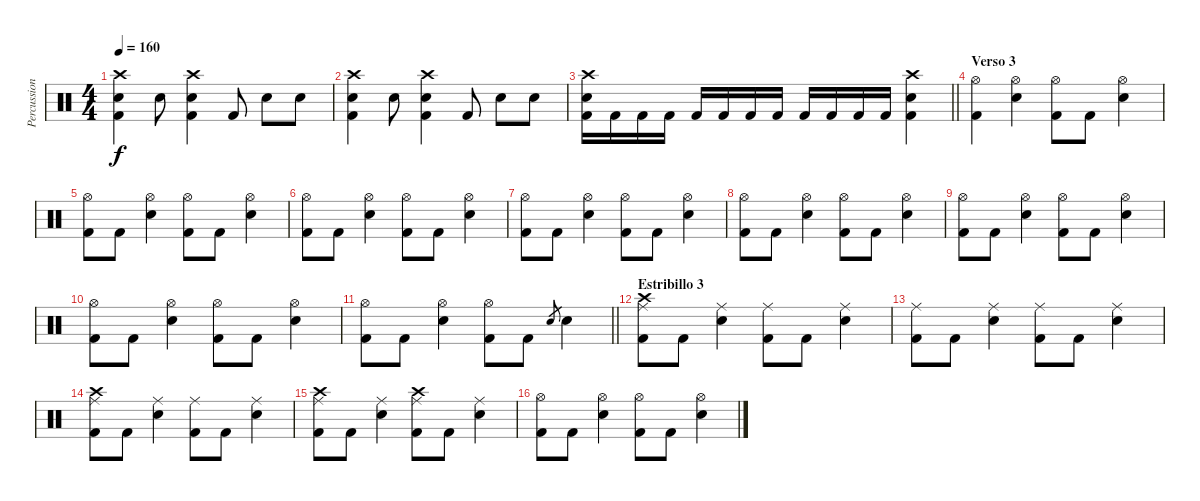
\track ("Percussion" "Percussion") {instrument percussion}
\staff {score}
\articulation defaults
\ts (4 4)
\tempo 160
\clef neutral
\ks c
("Crash high (hit)" "Snare (hit) 2" "Kick (hit) 2").4{dy f} "Snare (hit) 2".8 ("Crash high (hit)" "Snare (hit) 2" "Kick (hit) 2").4 "Kick (hit) 2".8 "Snare (hit) 2".8 "Snare (hit) 2".8 |
("Crash high (hit)" "Snare (hit) 2" "Kick (hit) 2").4 "Snare (hit) 2".8 ("Crash high (hit)" "Snare (hit) 2" "Kick (hit) 2").4 "Kick (hit) 2".8 "Snare (hit) 2".8 "Snare (hit) 2".8 |
\barLineRight lightlight
("Crash high (hit)" "Snare (hit) 2" "Kick (hit) 2").16 "Kick (hit) 2".16 "Kick (hit) 2".16 "Kick (hit) 2".16 "Kick (hit) 2".16 "Kick (hit) 2".16 "Kick (hit) 2".16 "Kick (hit) 2".16 "Kick (hit) 2".16 "Kick (hit) 2".16 "Kick (hit) 2".16 "Kick (hit) 2".16 ("Crash high (hit)" "Snare (hit) 2" "Kick (hit) 2").4 |
\section ("" "Verso 3")
("Hi-Hat (open)" "Kick (hit) 2").4 ("Hi-Hat (open)" "Snare (hit) 2").4 ("Hi-Hat (open)" "Kick (hit) 2").8 "Kick (hit) 2".8 ("Hi-Hat (open)" "Snare (hit) 2").4 |
("Hi-Hat (open)" "Kick (hit) 2").8 "Kick (hit) 2".8 ("Hi-Hat (open)" "Snare (hit) 2").4 ("Hi-Hat (open)" "Kick (hit) 2").8 "Kick (hit) 2".8 ("Hi-Hat (open)" "Snare (hit) 2").4 |
("Hi-Hat (open)" "Kick (hit) 2").8 "Kick (hit) 2".8 ("Hi-Hat (open)" "Snare (hit) 2").4 ("Hi-Hat (open)" "Kick (hit) 2").8 "Kick (hit) 2".8 ("Hi-Hat (open)" "Snare (hit) 2").4 |
("Hi-Hat (open)" "Kick (hit) 2").8 "Kick (hit) 2".8 ("Hi-Hat (open)" "Snare (hit) 2").4 ("Hi-Hat (open)" "Kick (hit) 2").8 "Kick (hit) 2".8 ("Hi-Hat (open)" "Snare (hit) 2").4 |
("Hi-Hat (open)" "Kick (hit) 2").8 "Kick (hit) 2".8 ("Hi-Hat (open)" "Snare (hit) 2").4 ("Hi-Hat (open)" "Kick (hit) 2").8 "Kick (hit) 2".8 ("Hi-Hat (open)" "Snare (hit) 2").4 |
("Hi-Hat (open)" "Kick (hit) 2").8 "Kick (hit) 2".8 ("Hi-Hat (open)" "Snare (hit) 2").4 ("Hi-Hat (open)" "Kick (hit) 2").8 "Kick (hit) 2".8 ("Hi-Hat (open)" "Snare (hit) 2").4 |
("Hi-Hat (open)" "Kick (hit) 2").8 "Kick (hit) 2".8 ("Hi-Hat (open)" "Snare (hit) 2").4 ("Hi-Hat (open)" "Kick (hit) 2").8 "Kick (hit) 2".8 ("Hi-Hat (open)" "Snare (hit) 2").4 |
\barLineRight lightlight
("Hi-Hat (open)" "Kick (hit) 2").8 "Kick (hit) 2".8 ("Hi-Hat (open)" "Snare (hit) 2").4 ("Hi-Hat (open)" "Kick (hit) 2").8 "Kick (hit) 2".8 "Snare (hit) 2".8{gr} "Snare (hit) 2".4 |
\section ("" "Estribillo 3")
("Ride (middle)" "Crash high (hit)" "Kick (hit) 2").8 "Kick (hit) 2".8 ("Ride (middle)" "Snare (hit) 2").4 ("Ride (middle)" "Kick (hit) 2").8 "Kick (hit) 2".8 ("Ride (middle)" "Snare (hit) 2").4 |
("Ride (middle)" "Kick (hit) 2").8 "Kick (hit) 2".8 ("Ride (middle)" "Snare (hit) 2").4 ("Ride (middle)" "Kick (hit) 2").8 "Kick (hit) 2".8 ("Ride (middle)" "Snare (hit) 2").4 |
("Ride (middle)" "Crash high (hit)" "Kick (hit) 2").8 "Kick (hit) 2".8 ("Ride (middle)" "Snare (hit) 2").4 ("Ride (middle)" "Kick (hit) 2").8 "Kick (hit) 2".8 ("Ride (middle)" "Snare (hit) 2").4 |
("Ride (middle)" "Crash high (hit)" "Kick (hit) 2").8 "Kick (hit) 2".8 ("Ride (middle)" "Snare (hit) 2").4 ("Ride (middle)" "Crash high (hit)" "Kick (hit) 2").8 "Kick (hit) 2".8 ("Ride (middle)" "Snare (hit) 2").4 |
("Hi-Hat (open)" "Kick (hit) 2").8 "Kick (hit) 2".8 ("Hi-Hat (open)" "Snare (hit) 2").4 ("Hi-Hat (open)" "Kick (hit) 2").8 "Kick (hit) 2".8 ("Hi-Hat (open)" "Snare (hit) 2").4
